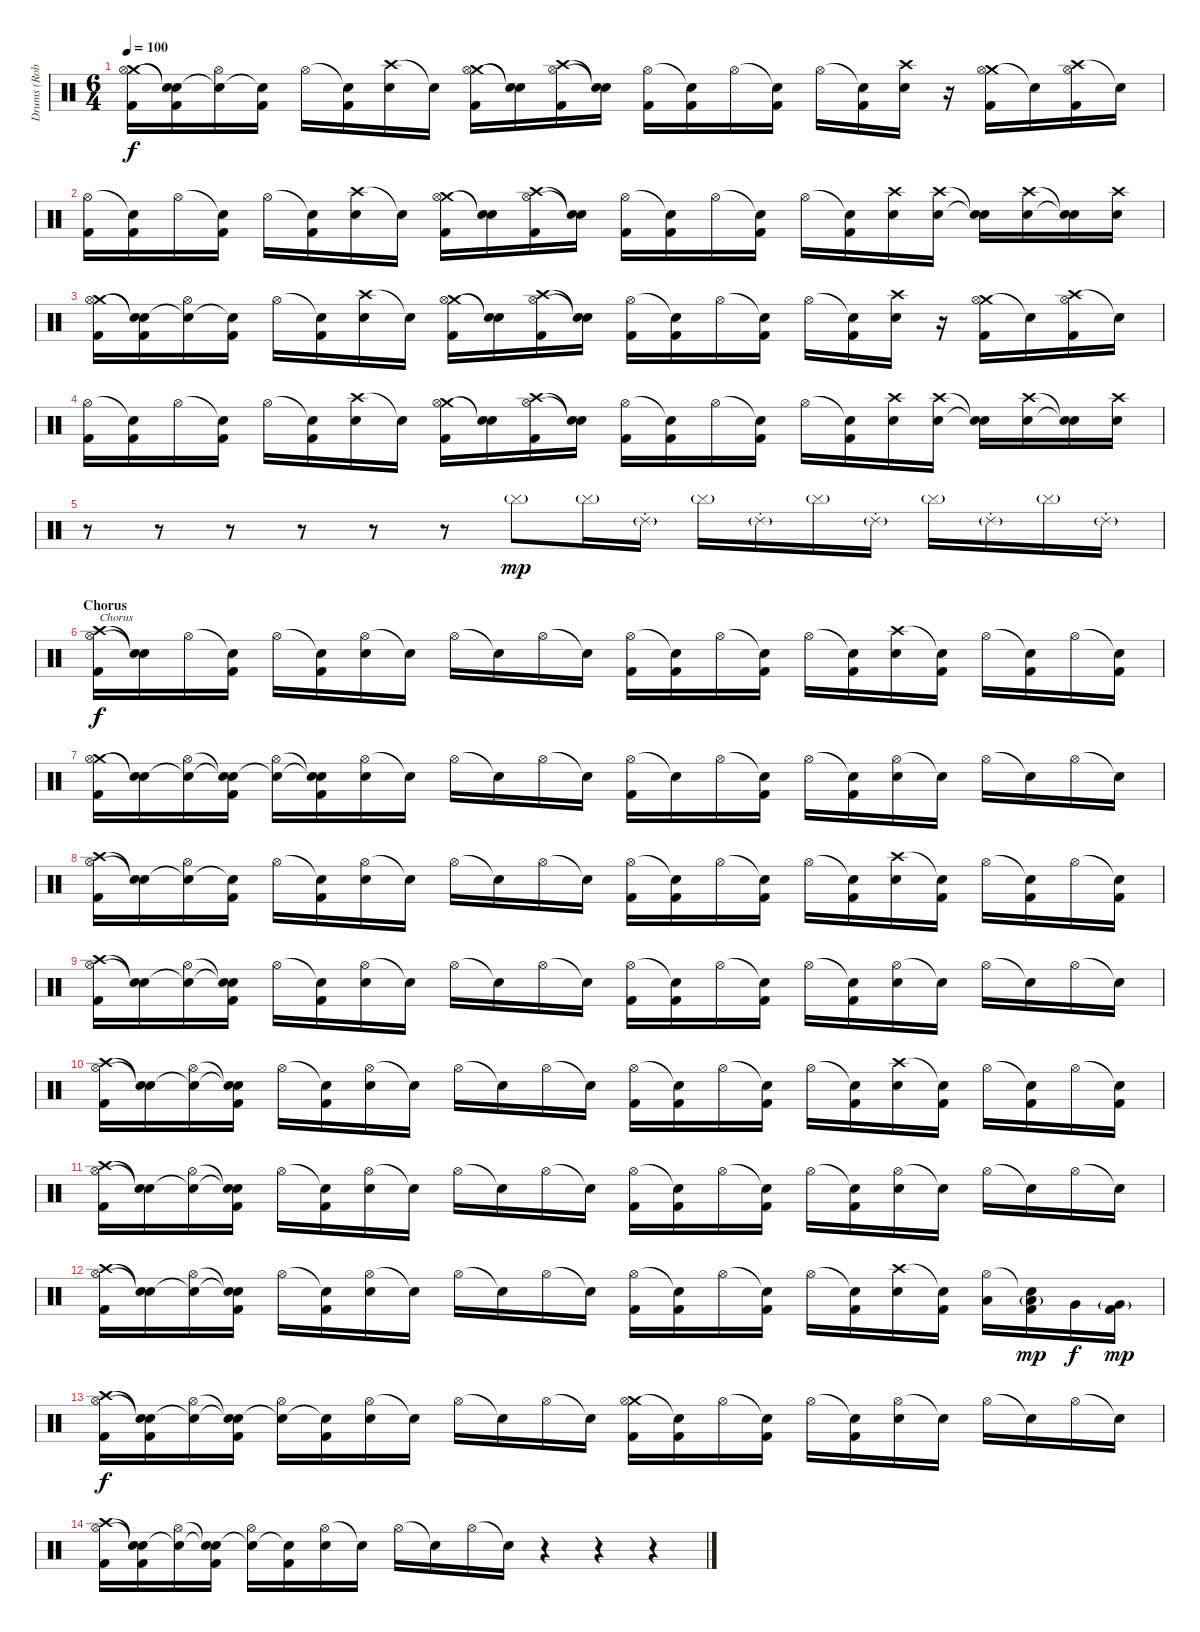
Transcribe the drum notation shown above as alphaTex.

\track ("Drums (Rob Bourdon)" "Drums (Rob") {instrument percussion}
\staff {score}
\articulation defaults
\ts (6 4)
\tempo 100
\clef neutral
\ks c
("Crash medium (hit)" "Hi-Hat (open)" "Kick (hit) 2").16{dy f} ("Snare (hit)"{t} "Snare (hit)"{t} "Kick (hit) 2").16 ("Snare (hit)"{t} "Hi-Hat (open)").16 ("Snare (hit)"{t} "Kick (hit) 2").16 "Hi-Hat (open)".16 ("Snare (hit)"{t} "Kick (hit) 2").16 ("Crash high (hit)" "Electric Snare (hit)").16 "Snare (hit)"{t}.16 ("Crash medium (hit)" "Hi-Hat (open)" "Kick (hit) 2").16 ("Snare (hit)"{t} "Snare (hit)"{t}).16 ("Crash high (hit)" "Hi-Hat (open)" "Kick (hit) 2").16 ("Snare (hit)"{t} "Snare (hit)"{t}).16 ("Hi-Hat (open)" "Kick (hit) 2").16 ("Snare (hit)"{t} "Kick (hit) 2").16 "Hi-Hat (open)".16 ("Snare (hit)"{t} "Kick (hit) 2").16 "Hi-Hat (open)".16 ("Snare (hit)"{t} "Kick (hit) 2").16 ("Crash high (hit)" "Electric Snare (hit)").16 r.16 ("Crash medium (hit)" "Hi-Hat (open)" "Kick (hit) 2").16 "Snare (hit)"{t}.16 ("Crash high (hit)" "Hi-Hat (open)" "Kick (hit) 2").16 "Snare (hit)"{t}.16 |
("Hi-Hat (open)" "Kick (hit) 2").16 ("Snare (hit)"{t} "Kick (hit) 2").16 "Hi-Hat (open)".16 ("Snare (hit)"{t} "Kick (hit) 2").16 "Hi-Hat (open)".16 ("Snare (hit)"{t} "Kick (hit) 2").16 ("Crash high (hit)" "Electric Snare (hit)").16 "Snare (hit)"{t}.16 ("Crash medium (hit)" "Hi-Hat (open)" "Kick (hit) 2").16 ("Snare (hit)"{t} "Snare (hit)"{t}).16 ("Crash high (hit)" "Hi-Hat (open)" "Kick (hit) 2").16 ("Snare (hit)"{t} "Snare (hit)"{t}).16 ("Hi-Hat (open)" "Kick (hit) 2").16 ("Snare (hit)"{t} "Kick (hit) 2").16 "Hi-Hat (open)".16 ("Snare (hit)"{t} "Kick (hit) 2").16 "Hi-Hat (open)".16 ("Snare (hit)"{t} "Kick (hit) 2").16 ("Crash high (hit)" "Electric Snare (hit)").16 ("Crash high (hit)" "Electric Snare (hit)").16 ("Snare (hit)"{t} "Snare (hit)"{t}).16 ("Crash high (hit)" "Electric Snare (hit)").16 ("Snare (hit)"{t} "Snare (hit)"{t}).16 ("Crash high (hit)" "Electric Snare (hit)").16 |
("Crash medium (hit)" "Hi-Hat (open)" "Kick (hit) 2").16 ("Snare (hit)"{t} "Snare (hit)"{t} "Kick (hit) 2").16 ("Snare (hit)"{t} "Hi-Hat (open)").16 ("Snare (hit)"{t} "Kick (hit) 2").16 "Hi-Hat (open)".16 ("Snare (hit)"{t} "Kick (hit) 2").16 ("Crash high (hit)" "Electric Snare (hit)").16 "Snare (hit)"{t}.16 ("Crash medium (hit)" "Hi-Hat (open)" "Kick (hit) 2").16 ("Snare (hit)"{t} "Snare (hit)"{t}).16 ("Crash high (hit)" "Hi-Hat (open)" "Kick (hit) 2").16 ("Snare (hit)"{t} "Snare (hit)"{t}).16 ("Hi-Hat (open)" "Kick (hit) 2").16 ("Snare (hit)"{t} "Kick (hit) 2").16 "Hi-Hat (open)".16 ("Snare (hit)"{t} "Kick (hit) 2").16 "Hi-Hat (open)".16 ("Snare (hit)"{t} "Kick (hit) 2").16 ("Crash high (hit)" "Electric Snare (hit)").16 r.16 ("Crash medium (hit)" "Hi-Hat (open)" "Kick (hit) 2").16 "Snare (hit)"{t}.16 ("Crash high (hit)" "Hi-Hat (open)" "Kick (hit) 2").16 "Snare (hit)"{t}.16 |
("Hi-Hat (open)" "Kick (hit) 2").16 ("Snare (hit)"{t} "Kick (hit) 2").16 "Hi-Hat (open)".16 ("Snare (hit)"{t} "Kick (hit) 2").16 "Hi-Hat (open)".16 ("Snare (hit)"{t} "Kick (hit) 2").16 ("Crash high (hit)" "Electric Snare (hit)").16 "Snare (hit)"{t}.16 ("Crash medium (hit)" "Hi-Hat (open)" "Kick (hit) 2").16 ("Snare (hit)"{t} "Snare (hit)"{t}).16 ("Crash high (hit)" "Hi-Hat (open)" "Kick (hit) 2").16 ("Snare (hit)"{t} "Snare (hit)"{t}).16 ("Hi-Hat (open)" "Kick (hit) 2").16 ("Snare (hit)"{t} "Kick (hit) 2").16 "Hi-Hat (open)".16 ("Snare (hit)"{t} "Kick (hit) 2").16 "Hi-Hat (open)".16 ("Snare (hit)"{t} "Kick (hit) 2").16 ("Crash high (hit)" "Electric Snare (hit)").16 ("Crash high (hit)" "Electric Snare (hit)").16 ("Snare (hit)"{t} "Snare (hit)"{t}).16 ("Crash high (hit)" "Electric Snare (hit)").16 ("Snare (hit)"{t} "Snare (hit)"{t}).16 ("Crash high (hit)" "Electric Snare (hit)").16 |
r.8 r.8 r.8 r.8 r.8 r.8 "Cymbal (hit)"{g}.8{dy mp} "Cymbal (hit)"{g}.16 "Ride (choke) 2"{g}.16 "Cymbal (hit)"{g}.16 "Ride (choke) 2"{g}.16 "Cymbal (hit)"{g}.16 "Ride (choke) 2"{g}.16 "Cymbal (hit)"{g}.16 "Ride (choke) 2"{g}.16 "Cymbal (hit)"{g}.16 "Ride (choke) 2"{g}.16 |
\section ("" "Chorus")
("Crash high (hit)" "Hi-Hat (open)" "Kick (hit) 2").16{txt "Chorus" dy f} ("Snare (hit)"{t} "Snare (hit)"{t}).16 "Hi-Hat (open)".16 ("Snare (hit)"{t} "Kick (hit) 2").16 "Hi-Hat (open)".16 ("Snare (hit)"{t} "Kick (hit) 2").16 ("Hi-Hat (open)" "Electric Snare (hit)").16 "Snare (hit)"{t}.16 "Hi-Hat (open)".16 "Snare (hit)"{t}.16 "Hi-Hat (open)".16 "Snare (hit)"{t}.16 ("Hi-Hat (open)" "Kick (hit) 2").16 ("Snare (hit)"{t} "Kick (hit) 2").16 "Hi-Hat (open)".16 ("Snare (hit)"{t} "Kick (hit) 2").16 "Hi-Hat (open)".16 ("Snare (hit)"{t} "Kick (hit) 2").16 ("Crash high (hit)" "Electric Snare (hit)").16 ("Snare (hit)"{t} "Kick (hit) 2").16 "Hi-Hat (open)".16 ("Snare (hit)"{t} "Kick (hit) 2").16 "Hi-Hat (open)".16 ("Snare (hit)"{t} "Kick (hit) 2").16 |
("Crash medium (hit)" "Hi-Hat (open)" "Kick (hit) 2").16 ("Snare (hit)"{t} "Snare (hit)"{t}).16 ("Snare (hit)"{t} "Hi-Hat (open)").16 ("Snare (hit)"{t} "Snare (hit)"{t} "Kick (hit) 2").16 ("Snare (hit)"{t} "Hi-Hat (open)").16 ("Snare (hit)"{t} "Snare (hit)"{t} "Kick (hit) 2").16 ("Hi-Hat (open)" "Electric Snare (hit)").16 "Snare (hit)"{t}.16 "Hi-Hat (open)".16 "Snare (hit)"{t}.16 "Hi-Hat (open)".16 "Snare (hit)"{t}.16 ("Hi-Hat (open)" "Kick (hit) 2").16 "Snare (hit)"{t}.16 "Hi-Hat (open)".16 ("Snare (hit)"{t} "Kick (hit) 2").16 "Hi-Hat (open)".16 ("Snare (hit)"{t} "Kick (hit) 2").16 ("Hi-Hat (open)" "Electric Snare (hit)").16 "Snare (hit)"{t}.16 "Hi-Hat (open)".16 "Snare (hit)"{t}.16 "Hi-Hat (open)".16 "Snare (hit)"{t}.16 |
("Crash high (hit)" "Hi-Hat (open)" "Kick (hit) 2").16 ("Snare (hit)"{t} "Snare (hit)"{t}).16 ("Snare (hit)"{t} "Hi-Hat (open)").16 ("Snare (hit)"{t} "Kick (hit) 2").16 "Hi-Hat (open)".16 ("Snare (hit)"{t} "Kick (hit) 2").16 ("Hi-Hat (open)" "Electric Snare (hit)").16 "Snare (hit)"{t}.16 "Hi-Hat (open)".16 "Snare (hit)"{t}.16 "Hi-Hat (open)".16 "Snare (hit)"{t}.16 ("Hi-Hat (open)" "Kick (hit) 2").16 ("Snare (hit)"{t} "Kick (hit) 2").16 "Hi-Hat (open)".16 ("Snare (hit)"{t} "Kick (hit) 2").16 "Hi-Hat (open)".16 ("Snare (hit)"{t} "Kick (hit) 2").16 ("Crash high (hit)" "Electric Snare (hit)").16 ("Snare (hit)"{t} "Kick (hit) 2").16 "Hi-Hat (open)".16 ("Snare (hit)"{t} "Kick (hit) 2").16 "Hi-Hat (open)".16 ("Snare (hit)"{t} "Kick (hit) 2").16 |
("Crash high (hit)" "Hi-Hat (open)" "Kick (hit) 2").16 ("Snare (hit)"{t} "Snare (hit)"{t}).16 ("Snare (hit)"{t} "Hi-Hat (open)").16 ("Snare (hit)"{t} "Snare (hit)"{t} "Kick (hit) 2").16 "Hi-Hat (open)".16 ("Snare (hit)"{t} "Kick (hit) 2").16 ("Hi-Hat (open)" "Electric Snare (hit)").16 "Snare (hit)"{t}.16 "Hi-Hat (open)".16 "Snare (hit)"{t}.16 "Hi-Hat (open)".16 "Snare (hit)"{t}.16 ("Hi-Hat (open)" "Kick (hit) 2").16 ("Snare (hit)"{t} "Kick (hit) 2").16 "Hi-Hat (open)".16 ("Snare (hit)"{t} "Kick (hit) 2").16 "Hi-Hat (open)".16 ("Snare (hit)"{t} "Kick (hit) 2").16 ("Hi-Hat (open)" "Electric Snare (hit)").16 "Snare (hit)"{t}.16 "Hi-Hat (open)".16 "Snare (hit)"{t}.16 "Hi-Hat (open)".16 "Snare (hit)"{t}.16 |
("Crash high (hit)" "Hi-Hat (open)" "Kick (hit) 2").16 ("Snare (hit)"{t} "Snare (hit)"{t}).16 ("Snare (hit)"{t} "Hi-Hat (open)").16 ("Snare (hit)"{t} "Snare (hit)"{t} "Kick (hit) 2").16 "Hi-Hat (open)".16 ("Snare (hit)"{t} "Kick (hit) 2").16 ("Hi-Hat (open)" "Electric Snare (hit)").16 "Snare (hit)"{t}.16 "Hi-Hat (open)".16 "Snare (hit)"{t}.16 "Hi-Hat (open)".16 "Snare (hit)"{t}.16 ("Hi-Hat (open)" "Kick (hit) 2").16 ("Snare (hit)"{t} "Kick (hit) 2").16 "Hi-Hat (open)".16 ("Snare (hit)"{t} "Kick (hit) 2").16 "Hi-Hat (open)".16 ("Snare (hit)"{t} "Kick (hit) 2").16 ("Crash high (hit)" "Electric Snare (hit)").16 ("Snare (hit)"{t} "Kick (hit) 2").16 "Hi-Hat (open)".16 ("Snare (hit)"{t} "Kick (hit) 2").16 "Hi-Hat (open)".16 ("Snare (hit)"{t} "Kick (hit) 2").16 |
("Crash high (hit)" "Hi-Hat (open)" "Kick (hit) 2").16 ("Snare (hit)"{t} "Snare (hit)"{t}).16 ("Snare (hit)"{t} "Hi-Hat (open)").16 ("Snare (hit)"{t} "Snare (hit)"{t} "Kick (hit) 2").16 "Hi-Hat (open)".16 ("Snare (hit)"{t} "Kick (hit) 2").16 ("Hi-Hat (open)" "Electric Snare (hit)").16 "Snare (hit)"{t}.16 "Hi-Hat (open)".16 "Snare (hit)"{t}.16 "Hi-Hat (open)".16 "Snare (hit)"{t}.16 ("Hi-Hat (open)" "Kick (hit) 2").16 ("Snare (hit)"{t} "Kick (hit) 2").16 "Hi-Hat (open)".16 ("Snare (hit)"{t} "Kick (hit) 2").16 "Hi-Hat (open)".16 ("Snare (hit)"{t} "Kick (hit) 2").16 ("Hi-Hat (open)" "Electric Snare (hit)").16 "Snare (hit)"{t}.16 "Hi-Hat (open)".16 "Snare (hit)"{t}.16 "Hi-Hat (open)".16 "Snare (hit)"{t}.16 |
("Crash high (hit)" "Hi-Hat (open)" "Kick (hit) 2").16 ("Snare (hit)"{t} "Snare (hit)"{t}).16 ("Snare (hit)"{t} "Hi-Hat (open)").16 ("Snare (hit)"{t} "Snare (hit)"{t} "Kick (hit) 2").16 "Hi-Hat (open)".16 ("Snare (hit)"{t} "Kick (hit) 2").16 ("Hi-Hat (open)" "Electric Snare (hit)").16 "Snare (hit)"{t}.16 "Hi-Hat (open)".16 "Snare (hit)"{t}.16 "Hi-Hat (open)".16 "Snare (hit)"{t}.16 ("Hi-Hat (open)" "Kick (hit) 2").16 ("Snare (hit)"{t} "Kick (hit) 2").16 "Hi-Hat (open)".16 ("Snare (hit)"{t} "Kick (hit) 2").16 "Hi-Hat (open)".16 ("Snare (hit)"{t} "Kick (hit) 2").16 ("Crash high (hit)" "Electric Snare (hit)").16 ("Snare (hit)"{t} "Kick (hit) 2").16 ("Hi-Hat (open)" "Low Tom (hit)").16 ("Snare (hit)"{t} "Low Tom (hit)"{g} "Kick (hit) 2").16{dy mp} "Very Low Tom (hit)".16{dy f} ("Very Low Tom (hit)"{g} "Kick (hit) 2").16{dy mp} |
("Crash high (hit)" "Hi-Hat (open)" "Kick (hit) 2").16{dy f} ("Snare (hit)"{t} "Snare (hit)"{t} "Kick (hit) 2").16 ("Snare (hit)"{t} "Hi-Hat (open)").16 ("Snare (hit)"{t} "Snare (hit)"{t} "Kick (hit) 2").16 ("Snare (hit)"{t} "Hi-Hat (open)").16 ("Snare (hit)"{t} "Kick (hit) 2").16 ("Hi-Hat (open)" "Electric Snare (hit)").16 "Snare (hit)"{t}.16 "Hi-Hat (open)".16 "Snare (hit)"{t}.16 "Hi-Hat (open)".16 "Snare (hit)"{t}.16 ("Crash medium (hit)" "Hi-Hat (open)" "Kick (hit) 2").16 ("Snare (hit)"{t} "Kick (hit) 2").16 "Hi-Hat (open)".16 ("Snare (hit)"{t} "Kick (hit) 2").16 "Hi-Hat (open)".16 ("Snare (hit)"{t} "Kick (hit) 2").16 ("Hi-Hat (open)" "Electric Snare (hit)").16 "Snare (hit)"{t}.16 "Hi-Hat (open)".16 "Snare (hit)"{t}.16 "Hi-Hat (open)".16 "Snare (hit)"{t}.16 |
("Crash high (hit)" "Hi-Hat (open)" "Kick (hit) 2").16 ("Snare (hit)"{t} "Snare (hit)"{t} "Kick (hit) 2").16 ("Snare (hit)"{t} "Hi-Hat (open)").16 ("Snare (hit)"{t} "Snare (hit)"{t} "Kick (hit) 2").16 ("Snare (hit)"{t} "Hi-Hat (open)").16 ("Snare (hit)"{t} "Kick (hit) 2").16 ("Hi-Hat (open)" "Electric Snare (hit)").16 "Snare (hit)"{t}.16 "Hi-Hat (open)".16 "Snare (hit)"{t}.16 "Hi-Hat (open)".16 "Snare (hit)"{t}.16 r.4 r.4 r.4
